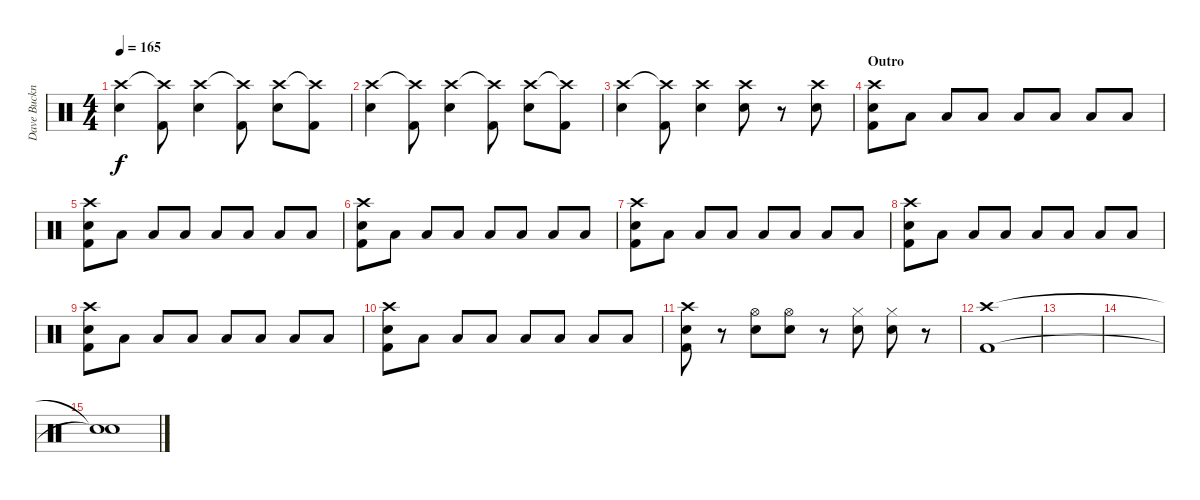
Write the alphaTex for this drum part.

\track ("Dave Buckner " "Dave Buckn") {instrument percussion}
\staff {score}
\articulation defaults
\ts (4 4)
\tempo 165
\clef neutral
\ks c
("Crash high (hit)" "Snare (hit) 2").4{dy f} ("Crash high (hit)"{t} "Kick (hit) 2").8 ("Crash high (hit)" "Snare (hit) 2").4 ("Crash high (hit)"{t} "Kick (hit) 2").8 ("Crash high (hit)" "Snare (hit) 2").8 ("Crash high (hit)"{t} "Kick (hit) 2").8 |
("Crash high (hit)" "Snare (hit) 2").4 ("Crash high (hit)"{t} "Kick (hit) 2").8 ("Crash high (hit)" "Snare (hit) 2").4 ("Crash high (hit)"{t} "Kick (hit) 2").8 ("Crash high (hit)" "Snare (hit) 2").8 ("Crash high (hit)"{t} "Kick (hit) 2").8 |
("Crash high (hit)" "Snare (hit) 2").4 ("Crash high (hit)"{t} "Kick (hit) 2").8 ("Crash high (hit)" "Snare (hit) 2").4 ("Crash high (hit)" "Snare (hit) 2").8 r.8 ("Crash high (hit)" "Snare (hit) 2").8 |
\section ("" "Outro")
("Crash high (hit)" "Snare (hit) 2" "Kick (hit) 2").8 "Low Tom (hit)".8 "Low Tom (hit)".8 "Low Tom (hit)".8 "Low Tom (hit)".8 "Low Tom (hit)".8 "Low Tom (hit)".8 "Low Tom (hit)".8 |
("Crash high (hit)" "Snare (hit) 2" "Kick (hit) 2").8 "Low Tom (hit)".8 "Low Tom (hit)".8 "Low Tom (hit)".8 "Low Tom (hit)".8 "Low Tom (hit)".8 "Low Tom (hit)".8 "Low Tom (hit)".8 |
("Crash high (hit)" "Snare (hit) 2" "Kick (hit) 2").8 "Low Tom (hit)".8 "Low Tom (hit)".8 "Low Tom (hit)".8 "Low Tom (hit)".8 "Low Tom (hit)".8 "Low Tom (hit)".8 "Low Tom (hit)".8 |
("Crash high (hit)" "Snare (hit) 2" "Kick (hit) 2").8 "Low Tom (hit)".8 "Low Tom (hit)".8 "Low Tom (hit)".8 "Low Tom (hit)".8 "Low Tom (hit)".8 "Low Tom (hit)".8 "Low Tom (hit)".8 |
("Crash high (hit)" "Snare (hit) 2" "Kick (hit) 2").8 "Low Tom (hit)".8 "Low Tom (hit)".8 "Low Tom (hit)".8 "Low Tom (hit)".8 "Low Tom (hit)".8 "Low Tom (hit)".8 "Low Tom (hit)".8 |
("Crash high (hit)" "Snare (hit) 2" "Kick (hit) 2").8 "Low Tom (hit)".8 "Low Tom (hit)".8 "Low Tom (hit)".8 "Low Tom (hit)".8 "Low Tom (hit)".8 "Low Tom (hit)".8 "Low Tom (hit)".8 |
("Crash high (hit)" "Snare (hit) 2" "Kick (hit) 2").8 "Low Tom (hit)".8 "Low Tom (hit)".8 "Low Tom (hit)".8 "Low Tom (hit)".8 "Low Tom (hit)".8 "Low Tom (hit)".8 "Low Tom (hit)".8 |
("Crash high (hit)" "Snare (hit) 2" "Kick (hit) 2").8 r.8 ("Hi-Hat (open)" "Snare (hit) 2").8 ("Hi-Hat (open)" "Snare (hit) 2").8 r.8 ("Hi-Hat (closed)" "Snare (hit) 2").8 ("Hi-Hat (closed)" "Snare (hit) 2").8 r.8 |
("Crash high (hit)" "Kick (hit) 2").1 |
|
|
("Snare (hit)"{t} "Snare (hit)"{t}).1
